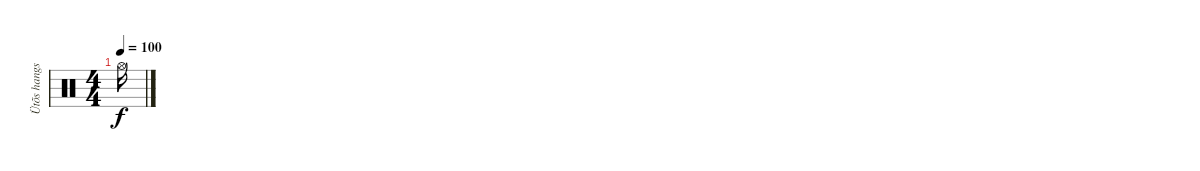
\track ("Ütõs hangszer" "Ütõs hangs") {instrument percussion}
\staff {score}
\articulation defaults
\ts (4 4)
\tempo 100
\clef neutral
\ks c "Hi-Hat (open)".16{dy f}
